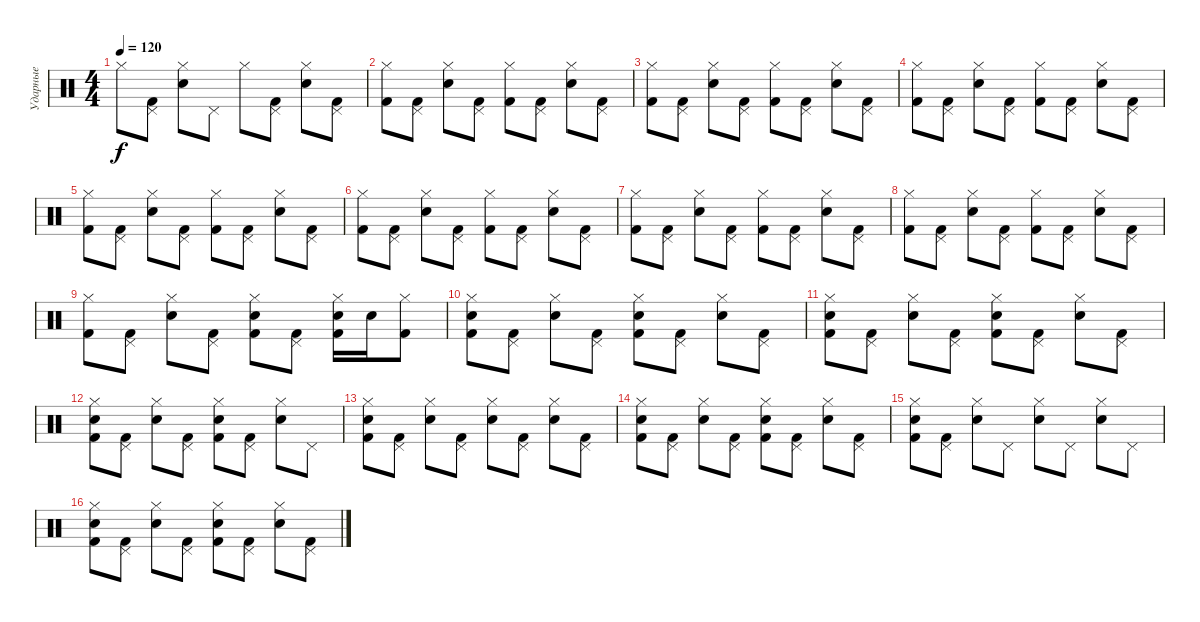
\track ("Ударные" "Ударные") {instrument percussion}
\staff {score}
\articulation defaults
\ts (4 4)
\tempo 120
\clef neutral
\ks c "Hi-Hat (closed)".8{dy f}
("Kick (hit) 2" "Pedal Hi-Hat (hit)").8 ("Snare (hit) 2" "Hi-Hat (closed)").8 "Pedal Hi-Hat (hit)".8 "Hi-Hat (closed)".8 ("Kick (hit) 2" "Pedal Hi-Hat (hit)").8 ("Snare (hit) 2" "Hi-Hat (closed)").8 ("Kick (hit) 2" "Pedal Hi-Hat (hit)").8 |
("Kick (hit) 2" "Hi-Hat (closed)").8 ("Kick (hit) 2" "Pedal Hi-Hat (hit)").8 ("Snare (hit) 2" "Hi-Hat (closed)").8 ("Kick (hit) 2" "Pedal Hi-Hat (hit)").8 ("Kick (hit) 2" "Hi-Hat (closed)").8 ("Kick (hit) 2" "Pedal Hi-Hat (hit)").8 ("Snare (hit) 2" "Hi-Hat (closed)").8 ("Kick (hit) 2" "Pedal Hi-Hat (hit)").8 |
("Kick (hit) 2" "Hi-Hat (closed)").8 ("Kick (hit) 2" "Pedal Hi-Hat (hit)").8 ("Snare (hit) 2" "Hi-Hat (closed)").8 ("Kick (hit) 2" "Pedal Hi-Hat (hit)").8 ("Kick (hit) 2" "Hi-Hat (closed)").8 ("Kick (hit) 2" "Pedal Hi-Hat (hit)").8 ("Snare (hit) 2" "Hi-Hat (closed)").8 ("Kick (hit) 2" "Pedal Hi-Hat (hit)").8 |
("Kick (hit) 2" "Hi-Hat (closed)").8 ("Kick (hit) 2" "Pedal Hi-Hat (hit)").8 ("Snare (hit) 2" "Hi-Hat (closed)").8 ("Kick (hit) 2" "Pedal Hi-Hat (hit)").8 ("Kick (hit) 2" "Hi-Hat (closed)").8 ("Kick (hit) 2" "Pedal Hi-Hat (hit)").8 ("Snare (hit) 2" "Hi-Hat (closed)").8 ("Kick (hit) 2" "Pedal Hi-Hat (hit)").8 |
("Kick (hit) 2" "Hi-Hat (closed)").8 ("Kick (hit) 2" "Pedal Hi-Hat (hit)").8 ("Snare (hit) 2" "Hi-Hat (closed)").8 ("Kick (hit) 2" "Pedal Hi-Hat (hit)").8 ("Kick (hit) 2" "Hi-Hat (closed)").8 ("Kick (hit) 2" "Pedal Hi-Hat (hit)").8 ("Snare (hit) 2" "Hi-Hat (closed)").8 ("Kick (hit) 2" "Pedal Hi-Hat (hit)").8 |
("Kick (hit) 2" "Hi-Hat (closed)").8 ("Kick (hit) 2" "Pedal Hi-Hat (hit)").8 ("Snare (hit) 2" "Hi-Hat (closed)").8 ("Kick (hit) 2" "Pedal Hi-Hat (hit)").8 ("Kick (hit) 2" "Hi-Hat (closed)").8 ("Kick (hit) 2" "Pedal Hi-Hat (hit)").8 ("Snare (hit) 2" "Hi-Hat (closed)").8 ("Kick (hit) 2" "Pedal Hi-Hat (hit)").8 |
("Kick (hit) 2" "Hi-Hat (closed)").8 ("Kick (hit) 2" "Pedal Hi-Hat (hit)").8 ("Snare (hit) 2" "Hi-Hat (closed)").8 ("Kick (hit) 2" "Pedal Hi-Hat (hit)").8 ("Kick (hit) 2" "Hi-Hat (closed)").8 ("Kick (hit) 2" "Pedal Hi-Hat (hit)").8 ("Snare (hit) 2" "Hi-Hat (closed)").8 ("Kick (hit) 2" "Pedal Hi-Hat (hit)").8 |
("Kick (hit) 2" "Hi-Hat (closed)").8 ("Kick (hit) 2" "Pedal Hi-Hat (hit)").8 ("Snare (hit) 2" "Hi-Hat (closed)").8 ("Kick (hit) 2" "Pedal Hi-Hat (hit)").8 ("Kick (hit) 2" "Hi-Hat (closed)").8 ("Kick (hit) 2" "Pedal Hi-Hat (hit)").8 ("Snare (hit) 2" "Hi-Hat (closed)").8 ("Kick (hit) 2" "Pedal Hi-Hat (hit)").8 |
("Kick (hit) 2" "Hi-Hat (closed)").8 ("Kick (hit) 2" "Pedal Hi-Hat (hit)").8 ("Snare (hit) 2" "Hi-Hat (closed)").8 ("Kick (hit) 2" "Pedal Hi-Hat (hit)").8 ("Kick (hit) 2" "Snare (hit) 2" "Hi-Hat (closed)").8 ("Kick (hit) 2" "Pedal Hi-Hat (hit)").8 ("Kick (hit) 2" "Snare (hit) 2" "Hi-Hat (closed)").16 "Snare (hit) 2".16 ("Kick (hit) 2" "Hi-Hat (closed)").8 |
("Kick (hit) 2" "Snare (hit) 2" "Hi-Hat (closed)").8 ("Kick (hit) 2" "Pedal Hi-Hat (hit)").8 ("Snare (hit) 2" "Hi-Hat (closed)").8 ("Kick (hit) 2" "Pedal Hi-Hat (hit)").8 ("Kick (hit) 2" "Snare (hit) 2" "Hi-Hat (closed)").8 ("Kick (hit) 2" "Pedal Hi-Hat (hit)").8 ("Snare (hit) 2" "Hi-Hat (closed)").8 ("Kick (hit) 2" "Pedal Hi-Hat (hit)").8 |
("Kick (hit) 2" "Snare (hit) 2" "Hi-Hat (closed)").8 ("Kick (hit) 2" "Pedal Hi-Hat (hit)").8 ("Snare (hit) 2" "Hi-Hat (closed)").8 ("Kick (hit) 2" "Pedal Hi-Hat (hit)").8 ("Kick (hit) 2" "Snare (hit) 2" "Hi-Hat (closed)").8 ("Kick (hit) 2" "Pedal Hi-Hat (hit)").8 ("Snare (hit) 2" "Hi-Hat (closed)").8 ("Kick (hit) 2" "Pedal Hi-Hat (hit)").8 |
("Kick (hit) 2" "Snare (hit) 2" "Hi-Hat (closed)").8 ("Kick (hit) 2" "Pedal Hi-Hat (hit)").8 ("Snare (hit) 2" "Hi-Hat (closed)").8 ("Kick (hit) 2" "Pedal Hi-Hat (hit)").8 ("Kick (hit) 2" "Snare (hit) 2" "Hi-Hat (closed)").8 ("Kick (hit) 2" "Pedal Hi-Hat (hit)").8 ("Snare (hit) 2" "Hi-Hat (closed)").8 "Pedal Hi-Hat (hit)".8 |
("Kick (hit) 2" "Snare (hit) 2" "Hi-Hat (closed)").8 ("Kick (hit) 2" "Pedal Hi-Hat (hit)").8 ("Snare (hit) 2" "Hi-Hat (closed)").8 ("Kick (hit) 2" "Pedal Hi-Hat (hit)").8 ("Snare (hit) 2" "Hi-Hat (closed)").8 ("Kick (hit) 2" "Pedal Hi-Hat (hit)").8 ("Snare (hit) 2" "Hi-Hat (closed)").8 ("Kick (hit) 2" "Pedal Hi-Hat (hit)").8 |
("Kick (hit) 2" "Snare (hit) 2" "Hi-Hat (closed)").8 ("Kick (hit) 2" "Pedal Hi-Hat (hit)").8 ("Snare (hit) 2" "Hi-Hat (closed)").8 ("Kick (hit) 2" "Pedal Hi-Hat (hit)").8 ("Kick (hit) 2" "Snare (hit) 2" "Hi-Hat (closed)").8 ("Kick (hit) 2" "Pedal Hi-Hat (hit)").8 ("Snare (hit) 2" "Hi-Hat (closed)").8 ("Kick (hit) 2" "Pedal Hi-Hat (hit)").8 |
("Kick (hit) 2" "Snare (hit) 2" "Hi-Hat (closed)").8 ("Kick (hit) 2" "Pedal Hi-Hat (hit)").8 ("Snare (hit) 2" "Hi-Hat (closed)").8 "Pedal Hi-Hat (hit)".8 ("Snare (hit) 2" "Hi-Hat (closed)").8 "Pedal Hi-Hat (hit)".8 ("Snare (hit) 2" "Hi-Hat (closed)").8 "Pedal Hi-Hat (hit)".8 |
("Kick (hit) 2" "Snare (hit) 2" "Hi-Hat (closed)").8 ("Kick (hit) 2" "Pedal Hi-Hat (hit)").8 ("Snare (hit) 2" "Hi-Hat (closed)").8 ("Kick (hit) 2" "Pedal Hi-Hat (hit)").8 ("Kick (hit) 2" "Snare (hit) 2" "Hi-Hat (closed)").8 ("Kick (hit) 2" "Pedal Hi-Hat (hit)").8 ("Snare (hit) 2" "Hi-Hat (closed)").8 ("Kick (hit) 2" "Pedal Hi-Hat (hit)").8
